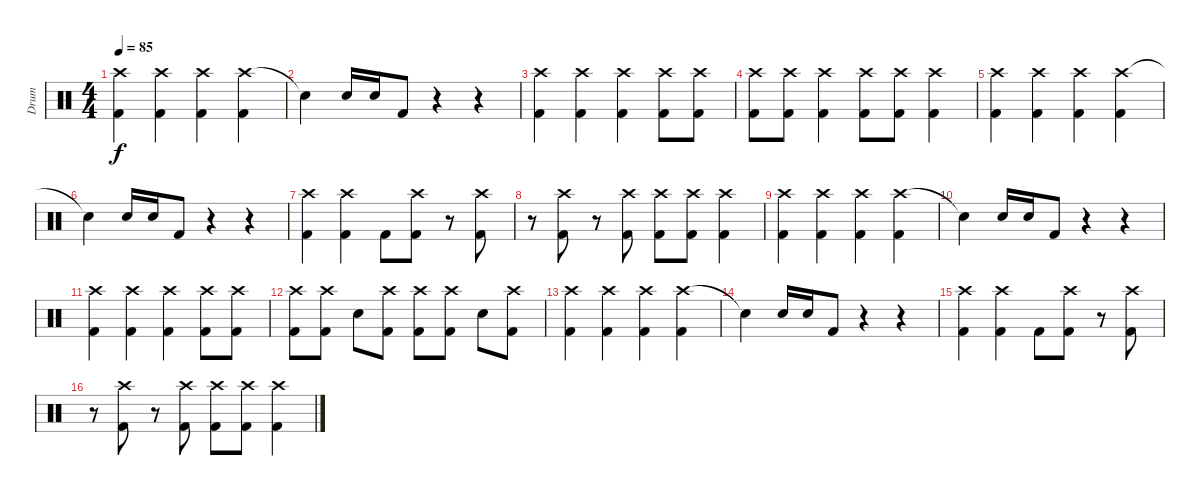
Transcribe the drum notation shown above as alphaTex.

\track ("Drum" "Drum") {instrument percussion}
\staff {score}
\articulation defaults
\ts (4 4)
\tempo 85
\clef neutral
\ks c
("Crash high (hit)" "Kick (hit) 2").4{dy f} ("Crash high (hit)" "Kick (hit) 2").4 ("Crash high (hit)" "Kick (hit) 2").4 ("Crash high (hit)" "Kick (hit) 2").4 |
"Snare (hit)"{t}.4 "Snare (hit) 2".16 "Snare (hit) 2".16 "Kick (hit) 2".8 r.4 r.4 |
("Crash high (hit)" "Kick (hit) 2").4 ("Crash high (hit)" "Kick (hit) 2").4 ("Crash high (hit)" "Kick (hit) 2").4 ("Crash high (hit)" "Kick (hit) 2").8 ("Crash high (hit)" "Kick (hit) 2").8 |
("Crash high (hit)" "Kick (hit) 2").8 ("Crash high (hit)" "Kick (hit) 2").8 ("Crash high (hit)" "Kick (hit) 2").4 ("Crash high (hit)" "Kick (hit) 2").8 ("Crash high (hit)" "Kick (hit) 2").8 ("Crash high (hit)" "Kick (hit) 2").4 |
("Crash high (hit)" "Kick (hit) 2").4 ("Crash high (hit)" "Kick (hit) 2").4 ("Crash high (hit)" "Kick (hit) 2").4 ("Crash high (hit)" "Kick (hit) 2").4 |
"Snare (hit)"{t}.4 "Snare (hit) 2".16 "Snare (hit) 2".16 "Kick (hit) 2".8 r.4 r.4 |
("Crash high (hit)" "Kick (hit) 2").4 ("Crash high (hit)" "Kick (hit) 2").4 "Kick (hit) 2".8 ("Crash high (hit)" "Kick (hit) 2").8 r.8 ("Crash high (hit)" "Kick (hit) 2").8 |
r.8 ("Crash high (hit)" "Kick (hit) 2").8 r.8 ("Crash high (hit)" "Kick (hit) 2").8 ("Crash high (hit)" "Kick (hit) 2").8 ("Crash high (hit)" "Kick (hit) 2").8 ("Crash high (hit)" "Kick (hit) 2").4 |
("Crash high (hit)" "Kick (hit) 2").4 ("Crash high (hit)" "Kick (hit) 2").4 ("Crash high (hit)" "Kick (hit) 2").4 ("Crash high (hit)" "Kick (hit) 2").4 |
"Snare (hit)"{t}.4 "Snare (hit) 2".16 "Snare (hit) 2".16 "Kick (hit) 2".8 r.4 r.4 |
("Crash high (hit)" "Kick (hit) 2").4 ("Crash high (hit)" "Kick (hit) 2").4 ("Crash high (hit)" "Kick (hit) 2").4 ("Crash high (hit)" "Kick (hit) 2").8 ("Crash high (hit)" "Kick (hit) 2").8 |
("Crash high (hit)" "Kick (hit) 2").8 ("Crash high (hit)" "Kick (hit) 2").8 "Snare (hit) 2".8 ("Crash high (hit)" "Kick (hit) 2").8 ("Crash high (hit)" "Kick (hit) 2").8 ("Crash high (hit)" "Kick (hit) 2").8 "Snare (hit) 2".8 ("Crash high (hit)" "Kick (hit) 2").8 |
("Crash high (hit)" "Kick (hit) 2").4 ("Crash high (hit)" "Kick (hit) 2").4 ("Crash high (hit)" "Kick (hit) 2").4 ("Crash high (hit)" "Kick (hit) 2").4 |
"Snare (hit)"{t}.4 "Snare (hit) 2".16 "Snare (hit) 2".16 "Kick (hit) 2".8 r.4 r.4 |
("Crash high (hit)" "Kick (hit) 2").4 ("Crash high (hit)" "Kick (hit) 2").4 "Kick (hit) 2".8 ("Crash high (hit)" "Kick (hit) 2").8 r.8 ("Crash high (hit)" "Kick (hit) 2").8 |
r.8 ("Crash high (hit)" "Kick (hit) 2").8 r.8 ("Crash high (hit)" "Kick (hit) 2").8 ("Crash high (hit)" "Kick (hit) 2").8 ("Crash high (hit)" "Kick (hit) 2").8 ("Crash high (hit)" "Kick (hit) 2").4
